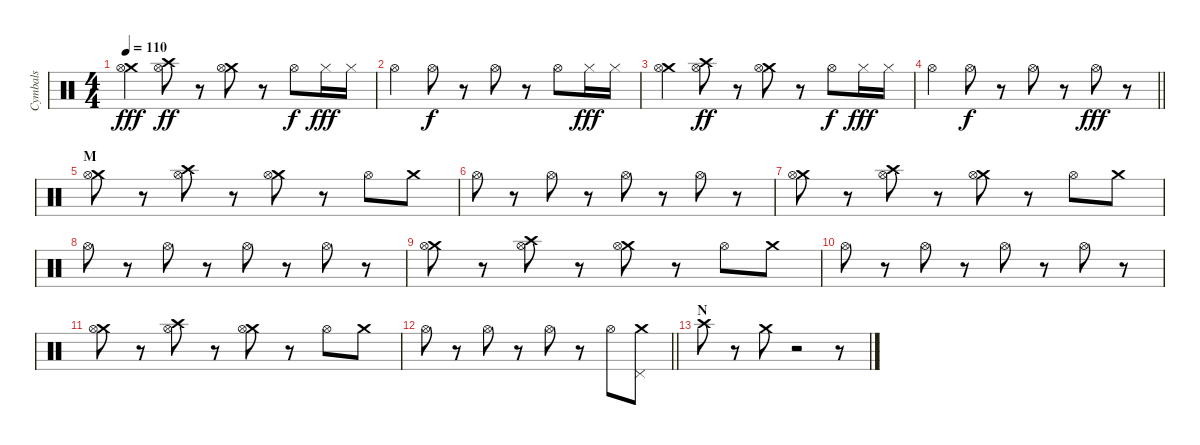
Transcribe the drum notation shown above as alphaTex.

\track ("Cymbals" "Cymbals") {instrument percussion}
\staff {score}
\articulation defaults
\ts (4 4)
\tempo 110
\clef neutral
\ks c
("Crash medium (hit)" "Hi-Hat (open)").4{dy fff} ("Crash high (hit)" "Hi-Hat (open)").8{dy ff} r.8 ("Crash medium (hit)" "Hi-Hat (open)").8 r.8 "Hi-Hat (open)".8{dy f} "Hi-Hat (closed)".16{dy fff} "Hi-Hat (closed)".16 |
"Hi-Hat (open)".4 "Hi-Hat (open)".8{dy f} r.8 "Hi-Hat (open)".8 r.8 "Hi-Hat (open)".8 "Hi-Hat (closed)".16{dy fff} "Hi-Hat (closed)".16 |
("Crash medium (hit)" "Hi-Hat (open)").4 ("Crash high (hit)" "Hi-Hat (open)").8{dy ff} r.8 ("Crash medium (hit)" "Hi-Hat (open)").8 r.8 "Hi-Hat (open)".8{dy f} "Hi-Hat (closed)".16{dy fff} "Hi-Hat (closed)".16 |
\barLineRight lightlight "Hi-Hat (open)".4 "Hi-Hat (open)".8{dy f}
r.8 "Hi-Hat (open)".8 r.8 "Hi-Hat (open)".8{dy fff} r.8 |
\section ("" "M")
("Crash medium (hit)" "Hi-Hat (open)").8 r.8 ("Crash high (hit)" "Hi-Hat (open)").8 r.8 ("Crash medium (hit)" "Hi-Hat (open)").8 r.8 "Hi-Hat (open)".8 "Crash medium (hit)".8 |
"Hi-Hat (open)".8 r.8 "Hi-Hat (open)".8 r.8 "Hi-Hat (open)".8 r.8 "Hi-Hat (open)".8 r.8 |
("Crash medium (hit)" "Hi-Hat (open)").8 r.8 ("Crash high (hit)" "Hi-Hat (open)").8 r.8 ("Crash medium (hit)" "Hi-Hat (open)").8 r.8 "Hi-Hat (open)".8 "Crash medium (hit)".8 |
"Hi-Hat (open)".8 r.8 "Hi-Hat (open)".8 r.8 "Hi-Hat (open)".8 r.8 "Hi-Hat (open)".8 r.8 |
("Crash medium (hit)" "Hi-Hat (open)").8 r.8 ("Crash high (hit)" "Hi-Hat (open)").8 r.8 ("Crash medium (hit)" "Hi-Hat (open)").8 r.8 "Hi-Hat (open)".8 "Crash medium (hit)".8 |
"Hi-Hat (open)".8 r.8 "Hi-Hat (open)".8 r.8 "Hi-Hat (open)".8 r.8 "Hi-Hat (open)".8 r.8 |
("Crash medium (hit)" "Hi-Hat (open)").8 r.8 ("Crash high (hit)" "Hi-Hat (open)").8 r.8 ("Crash medium (hit)" "Hi-Hat (open)").8 r.8 "Hi-Hat (open)".8 "Crash medium (hit)".8 |
\barLineRight lightlight "Hi-Hat (open)".8
r.8 "Hi-Hat (open)".8 r.8 "Hi-Hat (open)".8 r.8 "Hi-Hat (open)".8 ("Crash medium (hit)" "Pedal Hi-Hat (hit)").8 |
\section ("" "N")
"Crash high (hit)".8 r.8 "Crash medium (hit)".8 r.2 r.8
